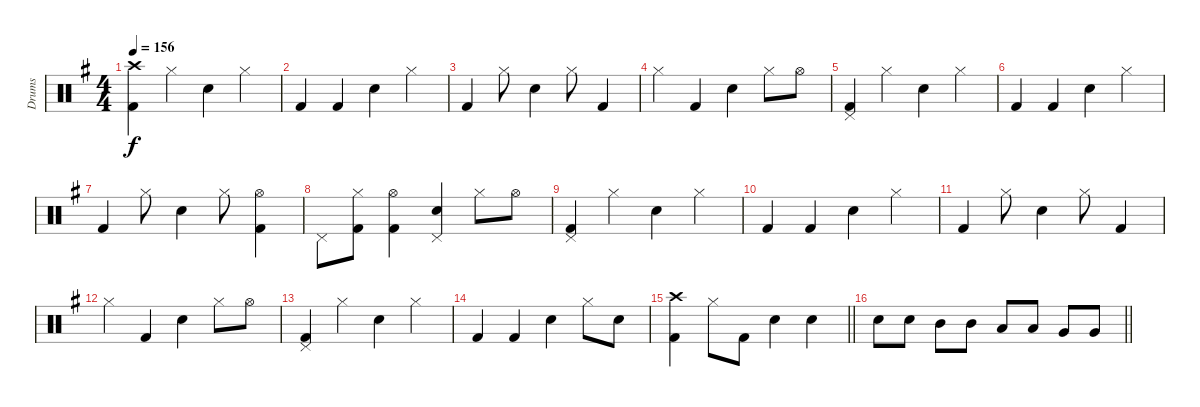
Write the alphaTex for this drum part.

\track ("Drums" "Drums") {instrument percussion}
\staff {score}
\articulation defaults
\ts (4 4)
\tempo 156
\clef neutral
\ks g
("Crash high (hit)" "Kick (hit) 2").4{dy f} "Hi-Hat (closed)".4 "Snare (hit) 2".4 "Hi-Hat (closed)".4 |
"Kick (hit) 2".4 "Kick (hit) 2".4 "Snare (hit) 2".4 "Hi-Hat (closed)".4 |
"Kick (hit) 2".4 "Hi-Hat (closed)".8 "Snare (hit) 2".4 "Hi-Hat (closed)".8 "Kick (hit) 2".4 |
"Hi-Hat (closed)".4 "Kick (hit) 2".4 "Snare (hit) 2".4 "Hi-Hat (closed)".8 "Hi-Hat (open)".8 |
("Pedal Hi-Hat (hit)" "Kick (hit) 2").4 "Hi-Hat (closed)".4 "Snare (hit) 2".4 "Hi-Hat (closed)".4 |
"Kick (hit) 2".4 "Kick (hit) 2".4 "Snare (hit) 2".4 "Hi-Hat (closed)".4 |
"Kick (hit) 2".4 "Hi-Hat (closed)".8 "Snare (hit) 2".4 "Hi-Hat (closed)".8 ("Hi-Hat (open)" "Kick (hit) 2").4 |
"Pedal Hi-Hat (hit)".8 ("Hi-Hat (closed)" "Kick (hit) 2").8 ("Hi-Hat (open)" "Kick (hit) 2").4 ("Pedal Hi-Hat (hit)" "Snare (hit) 2").4 "Hi-Hat (closed)".8 "Hi-Hat (open)".8 |
("Pedal Hi-Hat (hit)" "Kick (hit) 2").4 "Hi-Hat (closed)".4 "Snare (hit) 2".4 "Hi-Hat (closed)".4 |
"Kick (hit) 2".4 "Kick (hit) 2".4 "Snare (hit) 2".4 "Hi-Hat (closed)".4 |
"Kick (hit) 2".4 "Hi-Hat (closed)".8 "Snare (hit) 2".4 "Hi-Hat (closed)".8 "Kick (hit) 2".4 |
"Hi-Hat (closed)".4 "Kick (hit) 2".4 "Snare (hit) 2".4 "Hi-Hat (closed)".8 "Hi-Hat (open)".8 |
("Pedal Hi-Hat (hit)" "Kick (hit) 2").4 "Hi-Hat (closed)".4 "Snare (hit) 2".4 "Hi-Hat (closed)".4 |
"Kick (hit) 2".4 "Kick (hit) 2".4 "Snare (hit) 2".4 "Hi-Hat (closed)".8 "Snare (hit) 2".8 |
\barLineRight lightlight
("Crash high (hit)" "Kick (hit) 2").4 "Hi-Hat (closed)".8 "Kick (hit) 2".8 "Snare (hit) 2".4 "Snare (hit) 2".4 |
\barLineRight lightlight "Snare (hit) 2".8 "Snare (hit) 2".8 "Mid Tom (hit)".8 "Mid Tom (hit)".8 "Low Tom (hit)".8 "Low Tom (hit)".8 "Very Low Tom (hit)".8 "Very Low Tom (hit)".8
